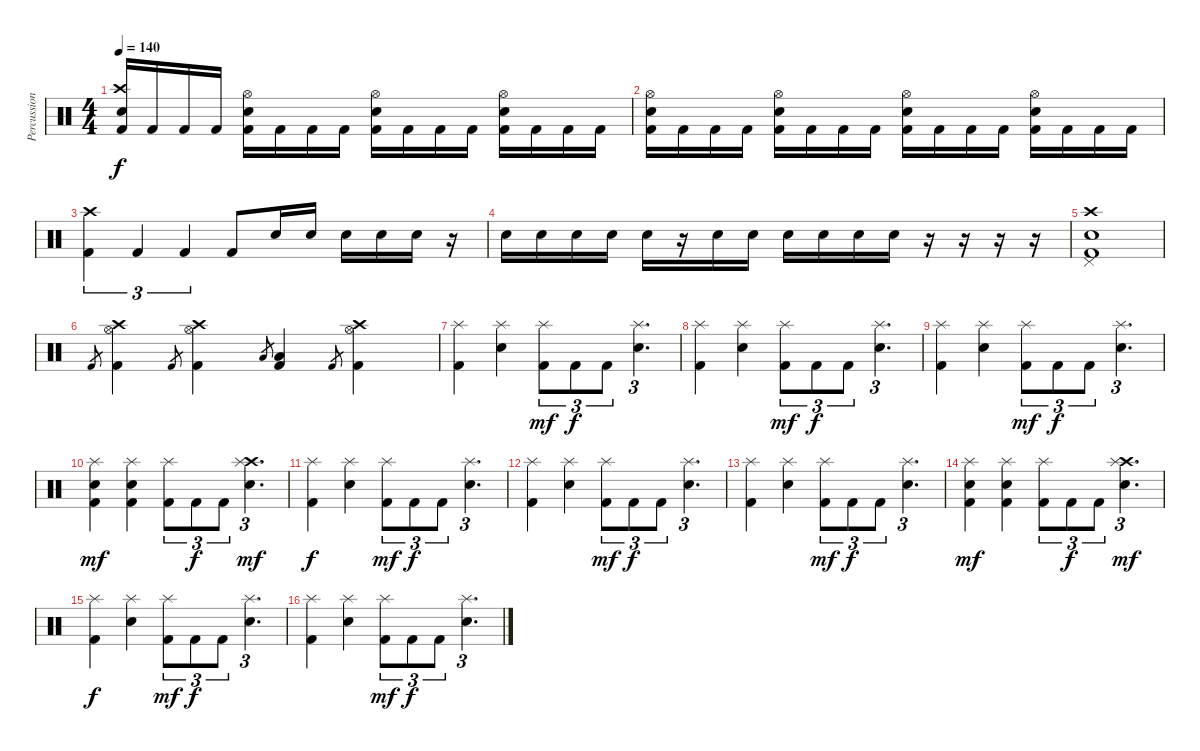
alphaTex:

\track ("Percussion" "Percussion") {instrument percussion}
\staff {score}
\articulation defaults
\ts (4 4)
\tempo 140
\clef neutral
\ks c
("Electric Snare (hit)" "Crash high (hit)" "Kick (hit) 2").16{dy f} "Kick (hit) 2".16 "Kick (hit) 2".16 "Kick (hit) 2".16 ("Electric Snare (hit)" "Hi-Hat (open)" "Kick (hit) 2").16 "Kick (hit) 2".16 "Kick (hit) 2".16 "Kick (hit) 2".16 ("Electric Snare (hit)" "Hi-Hat (open)" "Kick (hit) 2").16 "Kick (hit) 2".16 "Kick (hit) 2".16 "Kick (hit) 2".16 ("Electric Snare (hit)" "Hi-Hat (open)" "Kick (hit) 2").16 "Kick (hit) 2".16 "Kick (hit) 2".16 "Kick (hit) 2".16 |
("Electric Snare (hit)" "Hi-Hat (open)" "Kick (hit) 2").16 "Kick (hit) 2".16 "Kick (hit) 2".16 "Kick (hit) 2".16 ("Electric Snare (hit)" "Hi-Hat (open)" "Kick (hit) 2").16 "Kick (hit) 2".16 "Kick (hit) 2".16 "Kick (hit) 2".16 ("Electric Snare (hit)" "Hi-Hat (open)" "Kick (hit) 2").16 "Kick (hit) 2".16 "Kick (hit) 2".16 "Kick (hit) 2".16 ("Electric Snare (hit)" "Hi-Hat (open)" "Kick (hit) 2").16 "Kick (hit) 2".16 "Kick (hit) 2".16 "Kick (hit) 2".16 |
("Crash high (hit)" "Kick (hit) 2").4{tu (3 2)} "Kick (hit) 2".4{tu (3 2)} "Kick (hit) 2".4{tu (3 2)} "Kick (hit) 2".8 "Electric Snare (hit)".16 "Electric Snare (hit)".16 "Electric Snare (hit)".16 "Electric Snare (hit)".16 "Electric Snare (hit)".16 r.16 |
"Electric Snare (hit)".16 "Electric Snare (hit)".16 "Electric Snare (hit)".16 "Electric Snare (hit)".16 "Electric Snare (hit)".16 r.16 "Electric Snare (hit)".16 "Electric Snare (hit)".16 "Electric Snare (hit)".16 "Electric Snare (hit)".16 "Electric Snare (hit)".16 "Electric Snare (hit)".16 r.16 r.16 r.16 r.16 |
("Snare (hit) 2" "Crash high (hit)" "Pedal Hi-Hat (hit)" "Kick (hit) 2").1 |
"Kick (hit) 2".8{gr} ("Crash high (hit)" "Hi-Hat (open)" "Kick (hit) 2").4 "Kick (hit) 2".8{gr} ("Crash high (hit)" "Hi-Hat (open)" "Kick (hit) 2").4 "Low Floor Tom (hit)".8{gr} ("Low Floor Tom (hit)" "Kick (hit) 2").4 "Kick (hit) 2".8{gr} ("Crash high (hit)" "Hi-Hat (open)" "Kick (hit) 2").4 |
("Splash (hit)" "Kick (hit) 2").4 ("Splash (hit)" "Snare (hit) 2").4 ("Splash (hit)" "Kick (hit) 2").8{tu (3 2) dy mf} "Kick (hit) 2".8{tu (3 2) dy f} "Kick (hit) 2".8{tu (3 2)} ("Splash (hit)" "Snare (hit) 2").4{d tu (3 2)} |
("Splash (hit)" "Kick (hit) 2").4 ("Splash (hit)" "Snare (hit) 2").4 ("Splash (hit)" "Kick (hit) 2").8{tu (3 2) dy mf} "Kick (hit) 2".8{tu (3 2) dy f} "Kick (hit) 2".8{tu (3 2)} ("Splash (hit)" "Snare (hit) 2").4{d tu (3 2)} |
("Splash (hit)" "Kick (hit) 2").4 ("Splash (hit)" "Snare (hit) 2").4 ("Splash (hit)" "Kick (hit) 2").8{tu (3 2) dy mf} "Kick (hit) 2".8{tu (3 2) dy f} "Kick (hit) 2".8{tu (3 2)} ("Splash (hit)" "Snare (hit) 2").4{d tu (3 2)} |
("Splash (hit)" "Kick (hit) 2" "Snare (hit) 2").4{dy mf} ("Splash (hit)" "Kick (hit) 2" "Snare (hit) 2").4 ("Splash (hit)" "Kick (hit) 2").8{tu (3 2)} "Kick (hit) 2".8{tu (3 2) dy f} "Kick (hit) 2".8{tu (3 2)} ("Crash high (hit)" "Splash (hit)" "Snare (hit) 2").4{d tu (3 2) dy mf} |
("Splash (hit)" "Kick (hit) 2").4{dy f} ("Splash (hit)" "Snare (hit) 2").4 ("Splash (hit)" "Kick (hit) 2").8{tu (3 2) dy mf} "Kick (hit) 2".8{tu (3 2) dy f} "Kick (hit) 2".8{tu (3 2)} ("Splash (hit)" "Snare (hit) 2").4{d tu (3 2)} |
("Splash (hit)" "Kick (hit) 2").4 ("Splash (hit)" "Snare (hit) 2").4 ("Splash (hit)" "Kick (hit) 2").8{tu (3 2) dy mf} "Kick (hit) 2".8{tu (3 2) dy f} "Kick (hit) 2".8{tu (3 2)} ("Splash (hit)" "Snare (hit) 2").4{d tu (3 2)} |
("Splash (hit)" "Kick (hit) 2").4 ("Splash (hit)" "Snare (hit) 2").4 ("Splash (hit)" "Kick (hit) 2").8{tu (3 2) dy mf} "Kick (hit) 2".8{tu (3 2) dy f} "Kick (hit) 2".8{tu (3 2)} ("Splash (hit)" "Snare (hit) 2").4{d tu (3 2)} |
("Splash (hit)" "Kick (hit) 2" "Snare (hit) 2").4{dy mf} ("Splash (hit)" "Kick (hit) 2" "Snare (hit) 2").4 ("Splash (hit)" "Kick (hit) 2").8{tu (3 2)} "Kick (hit) 2".8{tu (3 2) dy f} "Kick (hit) 2".8{tu (3 2)} ("Crash high (hit)" "Splash (hit)" "Snare (hit) 2").4{d tu (3 2) dy mf} |
("Splash (hit)" "Kick (hit) 2").4{dy f} ("Splash (hit)" "Snare (hit) 2").4 ("Splash (hit)" "Kick (hit) 2").8{tu (3 2) dy mf} "Kick (hit) 2".8{tu (3 2) dy f} "Kick (hit) 2".8{tu (3 2)} ("Splash (hit)" "Snare (hit) 2").4{d tu (3 2)} |
("Splash (hit)" "Kick (hit) 2").4 ("Splash (hit)" "Snare (hit) 2").4 ("Splash (hit)" "Kick (hit) 2").8{tu (3 2) dy mf} "Kick (hit) 2".8{tu (3 2) dy f} "Kick (hit) 2".8{tu (3 2)} ("Splash (hit)" "Snare (hit) 2").4{d tu (3 2)}
